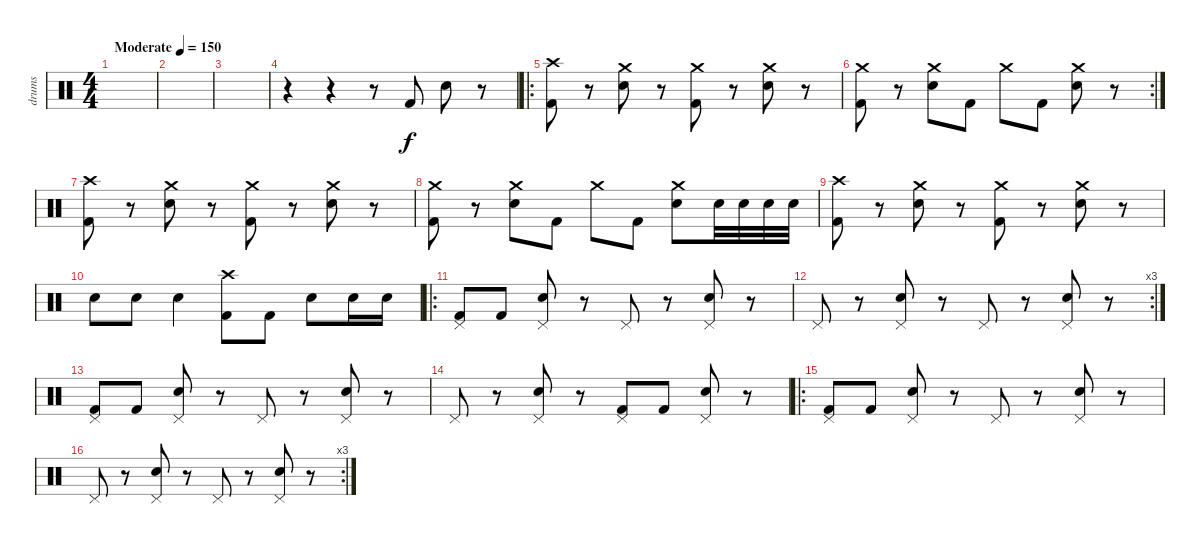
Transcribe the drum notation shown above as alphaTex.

\track ("drums" "drums") {instrument percussion}
\staff {score}
\articulation defaults
\ts (4 4)
\tempo (150 "Moderate")
\clef neutral
\ks c
|
|
|
r.4 r.4 r.8 "Kick (hit) 2".8 "Snare (hit) 2".8 r.8 |
\ro
("Crash high (hit)" "Kick (hit) 2").8 r.8 ("Crash medium (hit)" "Snare (hit) 2").8 r.8 ("Crash medium (hit)" "Kick (hit) 2").8 r.8 ("Crash medium (hit)" "Snare (hit) 2").8 r.8 |
\rc 2
("Crash medium (hit)" "Kick (hit) 2").8 r.8 ("Crash medium (hit)" "Snare (hit) 2").8 "Kick (hit) 2".8 "Crash medium (hit)".8 "Kick (hit) 2".8 ("Crash medium (hit)" "Snare (hit) 2").8 r.8 |
("Crash high (hit)" "Kick (hit) 2").8 r.8 ("Crash medium (hit)" "Snare (hit) 2").8 r.8 ("Crash medium (hit)" "Kick (hit) 2").8 r.8 ("Crash medium (hit)" "Snare (hit) 2").8 r.8 |
("Crash medium (hit)" "Kick (hit) 2").8 r.8 ("Crash medium (hit)" "Snare (hit) 2").8 "Kick (hit) 2".8 "Crash medium (hit)".8 "Kick (hit) 2".8 ("Crash medium (hit)" "Snare (hit) 2").8 "Snare (hit) 2".32 "Snare (hit) 2".32 "Snare (hit) 2".32 "Snare (hit) 2".32 |
("Crash high (hit)" "Kick (hit) 2").8 r.8 ("Crash medium (hit)" "Snare (hit) 2").8 r.8 ("Crash medium (hit)" "Kick (hit) 2").8 r.8 ("Crash medium (hit)" "Snare (hit) 2").8 r.8 |
"Snare (hit) 2".8 "Snare (hit) 2".8 "Snare (hit) 2".4 ("Crash high (hit)" "Kick (hit) 2").8 "Kick (hit) 2".8 "Snare (hit) 2".8 "Snare (hit) 2".16 "Snare (hit) 2".16 |
\ro
("Pedal Hi-Hat (hit)" "Kick (hit) 2").8 "Kick (hit) 2".8 ("Pedal Hi-Hat (hit)" "Snare (hit) 2").8 r.8 "Pedal Hi-Hat (hit)".8 r.8 ("Pedal Hi-Hat (hit)" "Snare (hit) 2").8 r.8 |
\rc 3 "Pedal Hi-Hat (hit)".8
r.8 ("Pedal Hi-Hat (hit)" "Snare (hit) 2").8 r.8 "Pedal Hi-Hat (hit)".8 r.8 ("Pedal Hi-Hat (hit)" "Snare (hit) 2").8 r.8 |
("Pedal Hi-Hat (hit)" "Kick (hit) 2").8 "Kick (hit) 2".8 ("Pedal Hi-Hat (hit)" "Snare (hit) 2").8 r.8 "Pedal Hi-Hat (hit)".8 r.8 ("Pedal Hi-Hat (hit)" "Snare (hit) 2").8 r.8 |
"Pedal Hi-Hat (hit)".8 r.8 ("Pedal Hi-Hat (hit)" "Snare (hit) 2").8 r.8 ("Pedal Hi-Hat (hit)" "Kick (hit) 2").8 "Kick (hit) 2".8 ("Pedal Hi-Hat (hit)" "Snare (hit) 2").8 r.8 |
\ro
("Pedal Hi-Hat (hit)" "Kick (hit) 2").8 "Kick (hit) 2".8 ("Pedal Hi-Hat (hit)" "Snare (hit) 2").8 r.8 "Pedal Hi-Hat (hit)".8 r.8 ("Pedal Hi-Hat (hit)" "Snare (hit) 2").8 r.8 |
\rc 3 "Pedal Hi-Hat (hit)".8
r.8 ("Pedal Hi-Hat (hit)" "Snare (hit) 2").8 r.8 "Pedal Hi-Hat (hit)".8 r.8 ("Pedal Hi-Hat (hit)" "Snare (hit) 2").8 r.8
